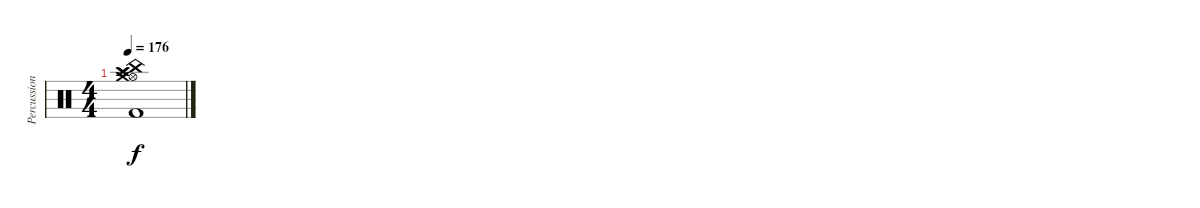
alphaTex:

\track ("Percussion" "Percussion") {instrument percussion}
\staff {score}
\articulation defaults
\ts (4 4)
\tempo 176
\clef neutral
\ks c
("China (hit)" "Splash (hit)" "Hi-Hat (open)" "Crash medium (hit)" "Crash high (hit)" "Kick (hit) 2").1{dy f}
